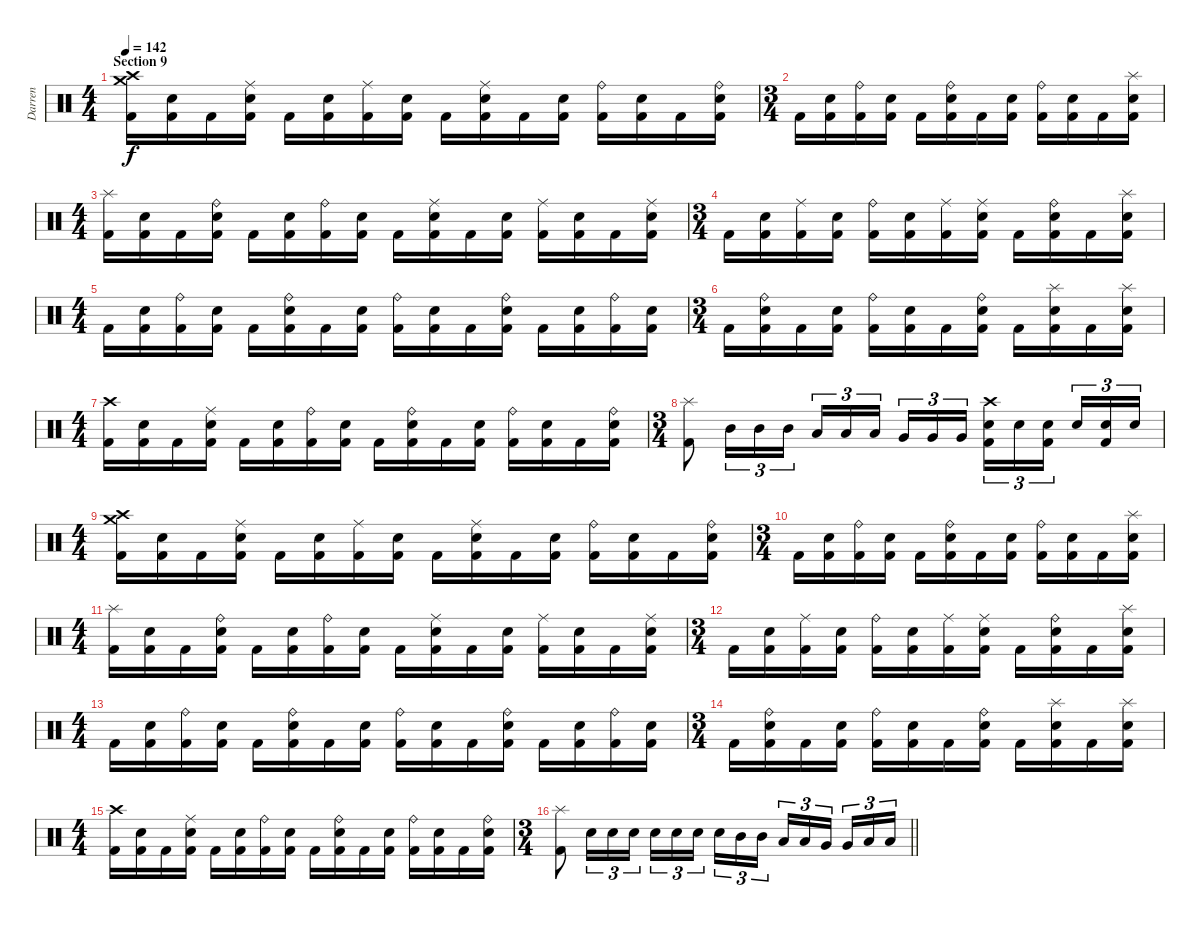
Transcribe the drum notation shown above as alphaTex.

\track ("Darren" "Darren") {instrument percussion}
\staff {score}
\articulation defaults
\ts (4 4)
\section ("" "Section 9")
\tempo 142
\clef neutral
\ks c
("Crash medium (hit)" "Crash high (hit)" "Kick (hit) 2").16{dy f} ("Electric Snare (hit)" "Kick (hit) 2").16 "Kick (hit) 2".16 ("Ride (middle)" "Electric Snare (hit)" "Kick (hit) 2").16 "Kick (hit) 2".16 ("Electric Snare (hit)" "Kick (hit) 2").16 ("Ride (middle)" "Kick (hit) 2").16 ("Electric Snare (hit)" "Kick (hit) 2").16 "Kick (hit) 2".16 ("Ride (middle)" "Electric Snare (hit)" "Kick (hit) 2").16 "Kick (hit) 2".16 ("Electric Snare (hit)" "Kick (hit) 2").16 ("Ride (bell)" "Kick (hit) 2").16 ("Electric Snare (hit)" "Kick (hit) 2").16 "Kick (hit) 2".16 ("Ride (bell)" "Electric Snare (hit)" "Kick (hit) 2").16 |
\ts (3 4)
"Kick (hit) 2".16 ("Electric Snare (hit)" "Kick (hit) 2").16 ("Ride (bell)" "Kick (hit) 2").16 ("Electric Snare (hit)" "Kick (hit) 2").16 "Kick (hit) 2".16 ("Ride (bell)" "Electric Snare (hit)" "Kick (hit) 2").16 "Kick (hit) 2".16 ("Electric Snare (hit)" "Kick (hit) 2").16 ("Ride (bell)" "Kick (hit) 2").16 ("Electric Snare (hit)" "Kick (hit) 2").16 "Kick (hit) 2".16 ("Splash (hit)" "Electric Snare (hit)" "Kick (hit) 2").16 |
\ts (4 4)
("Splash (hit)" "Kick (hit) 2").16 ("Electric Snare (hit)" "Kick (hit) 2").16 "Kick (hit) 2".16 ("Ride (bell)" "Electric Snare (hit)" "Kick (hit) 2").16 "Kick (hit) 2".16 ("Electric Snare (hit)" "Kick (hit) 2").16 ("Ride (bell)" "Kick (hit) 2").16 ("Electric Snare (hit)" "Kick (hit) 2").16 "Kick (hit) 2".16 ("Ride (middle)" "Electric Snare (hit)" "Kick (hit) 2").16 "Kick (hit) 2".16 ("Electric Snare (hit)" "Kick (hit) 2").16 ("Ride (middle)" "Kick (hit) 2").16 ("Electric Snare (hit)" "Kick (hit) 2").16 "Kick (hit) 2".16 ("Ride (middle)" "Electric Snare (hit)" "Kick (hit) 2").16 |
\ts (3 4)
"Kick (hit) 2".16 ("Electric Snare (hit)" "Kick (hit) 2").16 ("Ride (middle)" "Kick (hit) 2").16 ("Electric Snare (hit)" "Kick (hit) 2").16 ("Ride (bell)" "Kick (hit) 2").16 ("Electric Snare (hit)" "Kick (hit) 2").16 ("Ride (middle)" "Kick (hit) 2").16 ("Ride (middle)" "Electric Snare (hit)" "Kick (hit) 2").16 "Kick (hit) 2".16 ("Ride (bell)" "Electric Snare (hit)" "Kick (hit) 2").16 "Kick (hit) 2".16 ("Splash (hit)" "Electric Snare (hit)" "Kick (hit) 2").16 |
\ts (4 4)
"Kick (hit) 2".16 ("Electric Snare (hit)" "Kick (hit) 2").16 ("Ride (bell)" "Kick (hit) 2").16 ("Electric Snare (hit)" "Kick (hit) 2").16 "Kick (hit) 2".16 ("Ride (bell)" "Electric Snare (hit)" "Kick (hit) 2").16 "Kick (hit) 2".16 ("Electric Snare (hit)" "Kick (hit) 2").16 ("Ride (bell)" "Kick (hit) 2").16 ("Electric Snare (hit)" "Kick (hit) 2").16 "Kick (hit) 2".16 ("Ride (bell)" "Electric Snare (hit)" "Kick (hit) 2").16 "Kick (hit) 2".16 ("Electric Snare (hit)" "Kick (hit) 2").16 ("Ride (bell)" "Kick (hit) 2").16 ("Electric Snare (hit)" "Kick (hit) 2").16 |
\ts (3 4)
"Kick (hit) 2".16 ("Ride (bell)" "Electric Snare (hit)" "Kick (hit) 2").16 "Kick (hit) 2".16 ("Electric Snare (hit)" "Kick (hit) 2").16 ("Ride (bell)" "Kick (hit) 2").16 ("Electric Snare (hit)" "Kick (hit) 2").16 "Kick (hit) 2".16 ("Ride (bell)" "Electric Snare (hit)" "Kick (hit) 2").16 "Kick (hit) 2".16 ("Splash (hit)" "Electric Snare (hit)" "Kick (hit) 2").16 "Kick (hit) 2".16 ("Splash (hit)" "Electric Snare (hit)" "Kick (hit) 2").16 |
\ts (4 4)
("Crash high (hit)" "Kick (hit) 2").16 ("Electric Snare (hit)" "Kick (hit) 2").16 "Kick (hit) 2".16 ("Ride (middle)" "Electric Snare (hit)" "Kick (hit) 2").16 "Kick (hit) 2".16 ("Electric Snare (hit)" "Kick (hit) 2").16 ("Ride (bell)" "Kick (hit) 2").16 ("Electric Snare (hit)" "Kick (hit) 2").16 "Kick (hit) 2".16 ("Ride (bell)" "Electric Snare (hit)" "Kick (hit) 2").16 "Kick (hit) 2".16 ("Electric Snare (hit)" "Kick (hit) 2").16 ("Ride (bell)" "Kick (hit) 2").16 ("Electric Snare (hit)" "Kick (hit) 2").16 "Kick (hit) 2".16 ("Ride (bell)" "Electric Snare (hit)" "Kick (hit) 2").16 |
\ts (3 4)
("Splash (hit)" "Kick (hit) 2").8 "Mid Tom (hit)".16{tu (3 2)} "Mid Tom (hit)".16{tu (3 2)} "Mid Tom (hit)".16{tu (3 2)} "Low Tom (hit)".16{tu (3 2)} "Low Tom (hit)".16{tu (3 2)} "Low Tom (hit)".16{tu (3 2) beam splitsecondary} "Very Low Tom (hit)".16{tu (3 2)} "Very Low Tom (hit)".16{tu (3 2)} "Very Low Tom (hit)".16{tu (3 2)} ("Crash high (hit)" "Electric Snare (hit)" "Kick (hit) 2").16{tu (3 2)} "Electric Snare (hit)".16{tu (3 2)} ("Electric Snare (hit)" "Kick (hit) 2").16{tu (3 2) beam splitsecondary} "Electric Snare (hit)".16{tu (3 2)} ("Electric Snare (hit)" "Kick (hit) 2").16{tu (3 2)} "Electric Snare (hit)".16{tu (3 2)} |
\ts (4 4)
("Crash medium (hit)" "Crash high (hit)" "Kick (hit) 2").16 ("Electric Snare (hit)" "Kick (hit) 2").16 "Kick (hit) 2".16 ("Ride (middle)" "Electric Snare (hit)" "Kick (hit) 2").16 "Kick (hit) 2".16 ("Electric Snare (hit)" "Kick (hit) 2").16 ("Ride (middle)" "Kick (hit) 2").16 ("Electric Snare (hit)" "Kick (hit) 2").16 "Kick (hit) 2".16 ("Ride (middle)" "Electric Snare (hit)" "Kick (hit) 2").16 "Kick (hit) 2".16 ("Electric Snare (hit)" "Kick (hit) 2").16 ("Ride (bell)" "Kick (hit) 2").16 ("Electric Snare (hit)" "Kick (hit) 2").16 "Kick (hit) 2".16 ("Ride (bell)" "Electric Snare (hit)" "Kick (hit) 2").16 |
\ts (3 4)
"Kick (hit) 2".16 ("Electric Snare (hit)" "Kick (hit) 2").16 ("Ride (bell)" "Kick (hit) 2").16 ("Electric Snare (hit)" "Kick (hit) 2").16 "Kick (hit) 2".16 ("Ride (bell)" "Electric Snare (hit)" "Kick (hit) 2").16 "Kick (hit) 2".16 ("Electric Snare (hit)" "Kick (hit) 2").16 ("Ride (bell)" "Kick (hit) 2").16 ("Electric Snare (hit)" "Kick (hit) 2").16 "Kick (hit) 2".16 ("Splash (hit)" "Electric Snare (hit)" "Kick (hit) 2").16 |
\ts (4 4)
("Splash (hit)" "Kick (hit) 2").16 ("Electric Snare (hit)" "Kick (hit) 2").16 "Kick (hit) 2".16 ("Ride (bell)" "Electric Snare (hit)" "Kick (hit) 2").16 "Kick (hit) 2".16 ("Electric Snare (hit)" "Kick (hit) 2").16 ("Ride (bell)" "Kick (hit) 2").16 ("Electric Snare (hit)" "Kick (hit) 2").16 "Kick (hit) 2".16 ("Ride (middle)" "Electric Snare (hit)" "Kick (hit) 2").16 "Kick (hit) 2".16 ("Electric Snare (hit)" "Kick (hit) 2").16 ("Ride (middle)" "Kick (hit) 2").16 ("Electric Snare (hit)" "Kick (hit) 2").16 "Kick (hit) 2".16 ("Ride (middle)" "Electric Snare (hit)" "Kick (hit) 2").16 |
\ts (3 4)
"Kick (hit) 2".16 ("Electric Snare (hit)" "Kick (hit) 2").16 ("Ride (middle)" "Kick (hit) 2").16 ("Electric Snare (hit)" "Kick (hit) 2").16 ("Ride (bell)" "Kick (hit) 2").16 ("Electric Snare (hit)" "Kick (hit) 2").16 ("Ride (middle)" "Kick (hit) 2").16 ("Ride (middle)" "Electric Snare (hit)" "Kick (hit) 2").16 "Kick (hit) 2".16 ("Ride (bell)" "Electric Snare (hit)" "Kick (hit) 2").16 "Kick (hit) 2".16 ("Splash (hit)" "Electric Snare (hit)" "Kick (hit) 2").16 |
\ts (4 4)
"Kick (hit) 2".16 ("Electric Snare (hit)" "Kick (hit) 2").16 ("Ride (bell)" "Kick (hit) 2").16 ("Electric Snare (hit)" "Kick (hit) 2").16 "Kick (hit) 2".16 ("Ride (bell)" "Electric Snare (hit)" "Kick (hit) 2").16 "Kick (hit) 2".16 ("Electric Snare (hit)" "Kick (hit) 2").16 ("Ride (bell)" "Kick (hit) 2").16 ("Electric Snare (hit)" "Kick (hit) 2").16 "Kick (hit) 2".16 ("Ride (bell)" "Electric Snare (hit)" "Kick (hit) 2").16 "Kick (hit) 2".16 ("Electric Snare (hit)" "Kick (hit) 2").16 ("Ride (bell)" "Kick (hit) 2").16 ("Electric Snare (hit)" "Kick (hit) 2").16 |
\ts (3 4)
"Kick (hit) 2".16 ("Ride (bell)" "Electric Snare (hit)" "Kick (hit) 2").16 "Kick (hit) 2".16 ("Electric Snare (hit)" "Kick (hit) 2").16 ("Ride (bell)" "Kick (hit) 2").16 ("Electric Snare (hit)" "Kick (hit) 2").16 "Kick (hit) 2".16 ("Ride (bell)" "Electric Snare (hit)" "Kick (hit) 2").16 "Kick (hit) 2".16 ("Splash (hit)" "Electric Snare (hit)" "Kick (hit) 2").16 "Kick (hit) 2".16 ("Splash (hit)" "Electric Snare (hit)" "Kick (hit) 2").16 |
\ts (4 4)
("Crash high (hit)" "Kick (hit) 2").16 ("Electric Snare (hit)" "Kick (hit) 2").16 "Kick (hit) 2".16 ("Ride (middle)" "Electric Snare (hit)" "Kick (hit) 2").16 "Kick (hit) 2".16 ("Electric Snare (hit)" "Kick (hit) 2").16 ("Ride (bell)" "Kick (hit) 2").16 ("Electric Snare (hit)" "Kick (hit) 2").16 "Kick (hit) 2".16 ("Ride (bell)" "Electric Snare (hit)" "Kick (hit) 2").16 "Kick (hit) 2".16 ("Electric Snare (hit)" "Kick (hit) 2").16 ("Ride (bell)" "Kick (hit) 2").16 ("Electric Snare (hit)" "Kick (hit) 2").16 "Kick (hit) 2".16 ("Ride (bell)" "Electric Snare (hit)" "Kick (hit) 2").16 |
\ts (3 4)
\barLineRight lightlight
("Splash (hit)" "Kick (hit) 2").8 "Electric Snare (hit)".16{tu (3 2)} "Electric Snare (hit)".16{tu (3 2)} "Electric Snare (hit)".16{tu (3 2)} "Electric Snare (hit)".16{tu (3 2)} "Electric Snare (hit)".16{tu (3 2)} "Electric Snare (hit)".16{tu (3 2) beam splitsecondary} "Electric Snare (hit)".16{tu (3 2)} "Mid Tom (hit)".16{tu (3 2)} "Mid Tom (hit)".16{tu (3 2)} "Low Tom (hit)".16{tu (3 2)} "Low Tom (hit)".16{tu (3 2)} "Very Low Tom (hit)".16{tu (3 2) beam splitsecondary} "Very Low Tom (hit)".16{tu (3 2)} "Low Floor Tom (hit)".16{tu (3 2)} "Low Floor Tom (hit)".16{tu (3 2)}
